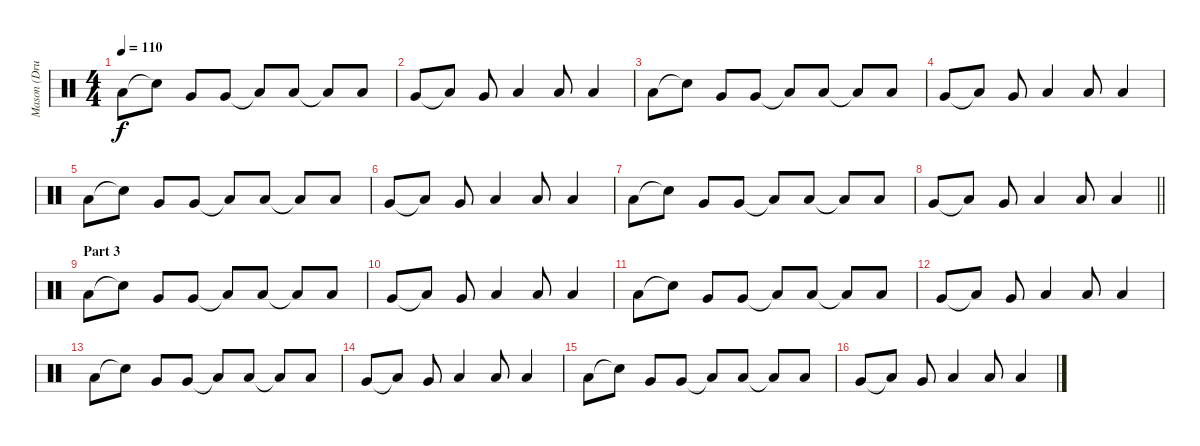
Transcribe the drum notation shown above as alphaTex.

\track ("Mason (Drums)" "Mason (Dru") {instrument percussion}
\staff {score}
\articulation defaults
\ts (4 4)
\tempo 110
\clef neutral
\ks c "Low Tom (hit)".8{dy f} "Snare (hit)"{t}.8 "Very Low Tom (hit)".8 "Very Low Tom (hit)".8 "Low Floor Tom (hit)"{t}.8 "Low Floor Tom (hit)".8 "Low Tom (hit)"{t}.8 "Low Tom (hit)".8
|
"Very Low Tom (hit)".8 "Low Floor Tom (hit)"{t}.8 "Very Low Tom (hit)".8 "Low Tom (hit)".4 "Low Floor Tom (hit)".8 "Low Floor Tom (hit)".4 |
"Low Tom (hit)".8 "Snare (hit)"{t}.8 "Very Low Tom (hit)".8 "Very Low Tom (hit)".8 "Low Floor Tom (hit)"{t}.8 "Low Floor Tom (hit)".8 "Low Tom (hit)"{t}.8 "Low Tom (hit)".8 |
"Very Low Tom (hit)".8 "Low Floor Tom (hit)"{t}.8 "Very Low Tom (hit)".8 "Low Tom (hit)".4 "Low Floor Tom (hit)".8 "Low Floor Tom (hit)".4 |
"Low Tom (hit)".8 "Snare (hit)"{t}.8 "Very Low Tom (hit)".8 "Very Low Tom (hit)".8 "Low Floor Tom (hit)"{t}.8 "Low Floor Tom (hit)".8 "Low Tom (hit)"{t}.8 "Low Tom (hit)".8 |
"Very Low Tom (hit)".8 "Low Floor Tom (hit)"{t}.8 "Very Low Tom (hit)".8 "Low Tom (hit)".4 "Low Floor Tom (hit)".8 "Low Floor Tom (hit)".4 |
"Low Tom (hit)".8 "Snare (hit)"{t}.8 "Very Low Tom (hit)".8 "Very Low Tom (hit)".8 "Low Floor Tom (hit)"{t}.8 "Low Floor Tom (hit)".8 "Low Tom (hit)"{t}.8 "Low Tom (hit)".8 |
\barLineRight lightlight "Very Low Tom (hit)".8 "Low Floor Tom (hit)"{t}.8 "Very Low Tom (hit)".8 "Low Tom (hit)".4 "Low Floor Tom (hit)".8 "Low Floor Tom (hit)".4
|
\section ("" "Part 3")
"Low Tom (hit)".8 "Snare (hit)"{t}.8 "Very Low Tom (hit)".8 "Very Low Tom (hit)".8 "Low Floor Tom (hit)"{t}.8 "Low Floor Tom (hit)".8 "Low Tom (hit)"{t}.8 "Low Tom (hit)".8 |
"Very Low Tom (hit)".8 "Low Floor Tom (hit)"{t}.8 "Very Low Tom (hit)".8 "Low Tom (hit)".4 "Low Floor Tom (hit)".8 "Low Floor Tom (hit)".4 |
"Low Tom (hit)".8 "Snare (hit)"{t}.8 "Very Low Tom (hit)".8 "Very Low Tom (hit)".8 "Low Floor Tom (hit)"{t}.8 "Low Floor Tom (hit)".8 "Low Tom (hit)"{t}.8 "Low Tom (hit)".8 |
"Very Low Tom (hit)".8 "Low Floor Tom (hit)"{t}.8 "Very Low Tom (hit)".8 "Low Tom (hit)".4 "Low Floor Tom (hit)".8 "Low Floor Tom (hit)".4 |
"Low Tom (hit)".8 "Snare (hit)"{t}.8 "Very Low Tom (hit)".8 "Very Low Tom (hit)".8 "Low Floor Tom (hit)"{t}.8 "Low Floor Tom (hit)".8 "Low Tom (hit)"{t}.8 "Low Tom (hit)".8 |
"Very Low Tom (hit)".8 "Low Floor Tom (hit)"{t}.8 "Very Low Tom (hit)".8 "Low Tom (hit)".4 "Low Floor Tom (hit)".8 "Low Floor Tom (hit)".4 |
"Low Tom (hit)".8 "Snare (hit)"{t}.8 "Very Low Tom (hit)".8 "Very Low Tom (hit)".8 "Low Floor Tom (hit)"{t}.8 "Low Floor Tom (hit)".8 "Low Tom (hit)"{t}.8 "Low Tom (hit)".8 |
"Very Low Tom (hit)".8 "Low Floor Tom (hit)"{t}.8 "Very Low Tom (hit)".8 "Low Tom (hit)".4 "Low Floor Tom (hit)".8 "Low Floor Tom (hit)".4
